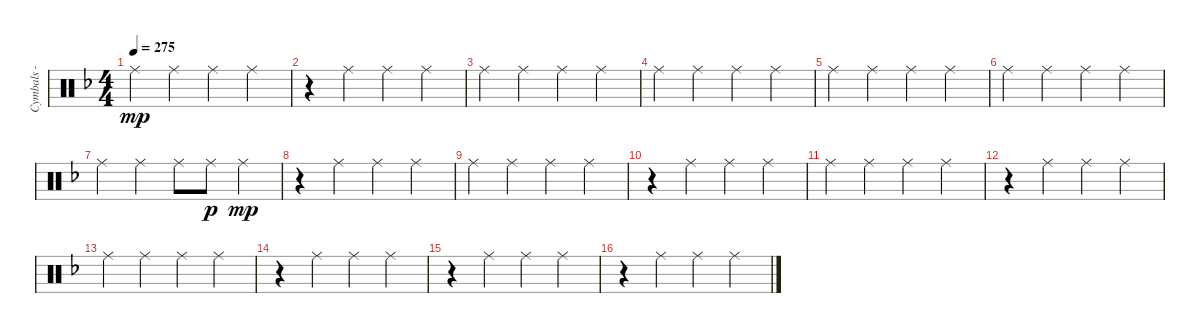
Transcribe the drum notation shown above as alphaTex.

\track ("Cymbals - ride" "Cymbals - ") {instrument percussion}
\staff {score}
\articulation defaults
\ts (4 4)
\tempo 275
\clef neutral
\ks dminor "Ride (middle)".4{dy mp} "Ride (middle)".4 "Ride (middle)".4 "Ride (middle)".4
|
r.4 "Ride (middle)".4 "Ride (middle)".4 "Ride (middle)".4 |
"Ride (middle)".4 "Ride (middle)".4 "Ride (middle)".4 "Ride (middle)".4 |
"Ride (middle)".4 "Ride (middle)".4 "Ride (middle)".4 "Ride (middle)".4 |
"Ride (middle)".4 "Ride (middle)".4 "Ride (middle)".4 "Ride (middle)".4 |
"Ride (middle)".4 "Ride (middle)".4 "Ride (middle)".4 "Ride (middle)".4 |
"Ride (middle)".4 "Ride (middle)".4 "Ride (middle)".8 "Ride (middle)".8{dy p} "Ride (middle)".4{dy mp} |
r.4 "Ride (middle)".4 "Ride (middle)".4 "Ride (middle)".4 |
"Ride (middle)".4 "Ride (middle)".4 "Ride (middle)".4 "Ride (middle)".4 |
r.4 "Ride (middle)".4 "Ride (middle)".4 "Ride (middle)".4 |
"Ride (middle)".4 "Ride (middle)".4 "Ride (middle)".4 "Ride (middle)".4 |
r.4 "Ride (middle)".4 "Ride (middle)".4 "Ride (middle)".4 |
"Ride (middle)".4 "Ride (middle)".4 "Ride (middle)".4 "Ride (middle)".4 |
r.4 "Ride (middle)".4 "Ride (middle)".4 "Ride (middle)".4 |
r.4 "Ride (middle)".4 "Ride (middle)".4 "Ride (middle)".4 |
r.4 "Ride (middle)".4 "Ride (middle)".4 "Ride (middle)".4
